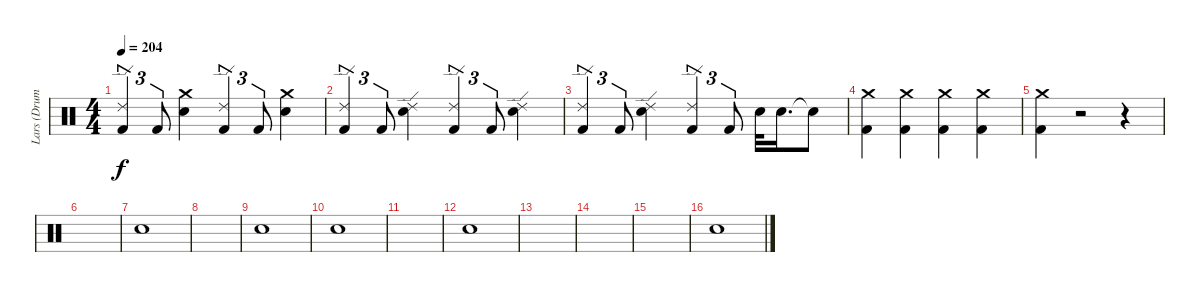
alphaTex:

\track ("Lars (Drums)" "Lars (Drum") {instrument percussion}
\staff {score}
\articulation defaults
\ts (4 4)
\tempo 204
\clef neutral
\ks c
("Ride (edge) 2" "Kick (hit) 2").4{tu (3 2) dy f} "Kick (hit) 2".8{tu (3 2)} ("Snare (hit) 2" "Crash medium (hit)").4 ("Ride (edge) 2" "Kick (hit) 2").4{tu (3 2)} "Kick (hit) 2".8{tu (3 2)} ("Snare (hit) 2" "Crash medium (hit)").4 |
("Ride (edge) 2" "Kick (hit) 2").4{tu (3 2)} "Kick (hit) 2".8{tu (3 2)} ("Snare (hit) 2" "Ride (edge) 2").4 ("Ride (edge) 2" "Kick (hit) 2").4{tu (3 2)} "Kick (hit) 2".8{tu (3 2)} ("Snare (hit) 2" "Ride (edge) 2").4 |
("Ride (edge) 2" "Kick (hit) 2").4{tu (3 2)} "Kick (hit) 2".8{tu (3 2)} ("Snare (hit) 2" "Ride (edge) 2").4 ("Ride (edge) 2" "Kick (hit) 2").4{tu (3 2)} "Kick (hit) 2".8{tu (3 2)} "Snare (hit) 2".32 "Snare (hit) 2".16{d} "Snare (hit)"{t}.8 |
("Crash medium (hit)" "Kick (hit) 2").4 ("Crash medium (hit)" "Kick (hit) 2").4 ("Crash medium (hit)" "Kick (hit) 2").4 ("Crash medium (hit)" "Kick (hit) 2").4 |
("Crash medium (hit)" "Kick (hit) 2").4 r.2 r.4 |
|
"Snare (hit)".1 |
|
"Snare (hit)".1 |
"Snare (hit)".1 |
|
"Snare (hit)".1 |
|
|
|
"Snare (hit)".1
